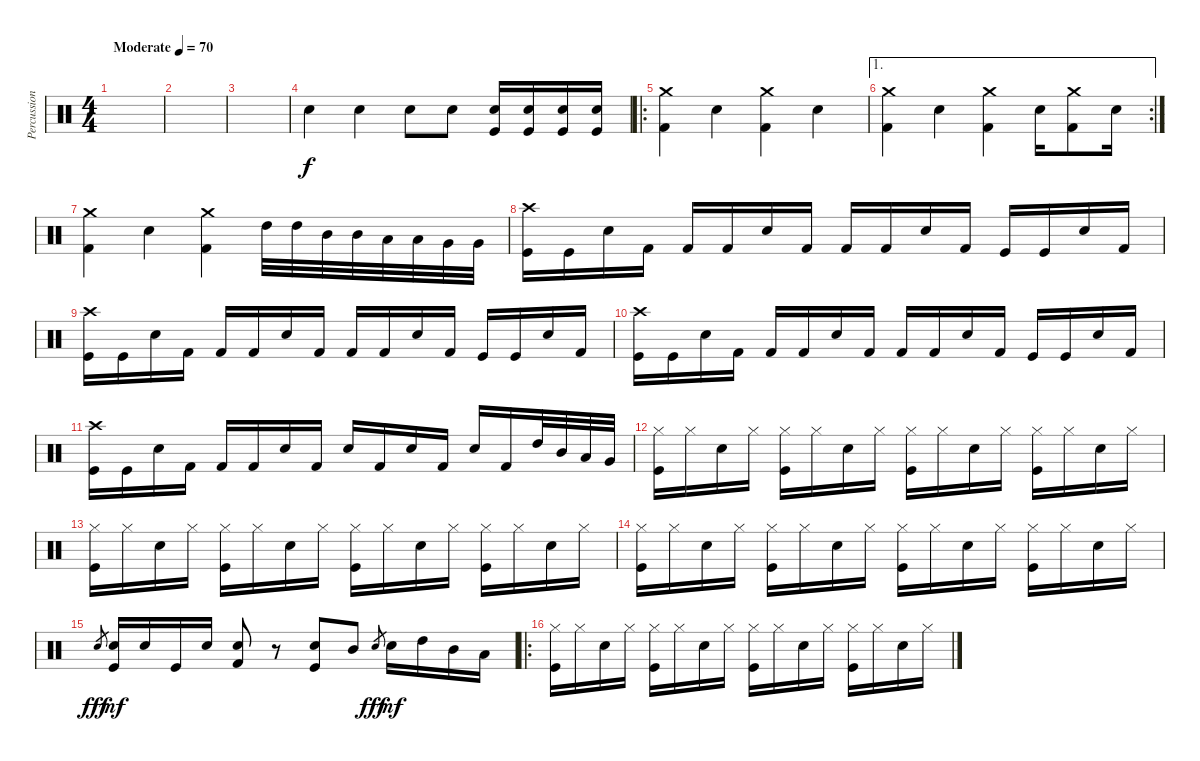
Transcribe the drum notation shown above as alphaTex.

\track ("Percussion" "Percussion") {instrument percussion}
\staff {score}
\articulation defaults
\ts (4 4)
\tempo (70 "Moderate")
\clef neutral
\ks c
|
|
|
"Snare (hit) 2".4 "Snare (hit) 2".4 "Snare (hit) 2".8 "Snare (hit) 2".8 ("Snare (hit) 2" "Kick (hit)").16 ("Snare (hit) 2" "Kick (hit)").16 ("Snare (hit) 2" "Kick (hit)").16 ("Snare (hit) 2" "Kick (hit)").16 |
\ro
("Crash medium (hit)" "Kick (hit) 2").4 "Electric Snare (hit)".4 ("Crash medium (hit)" "Kick (hit) 2").4 "Electric Snare (hit)".4 |
\ae 1
\rc 2
("Crash medium (hit)" "Kick (hit) 2").4 "Electric Snare (hit)".4 ("Crash medium (hit)" "Kick (hit) 2").4 "Electric Snare (hit)".16 ("Crash medium (hit)" "Kick (hit) 2").8 "Electric Snare (hit)".16 |
("Crash medium (hit)" "Kick (hit) 2").4 "Electric Snare (hit)".4 ("Crash medium (hit)" "Kick (hit) 2").4 "High Tom (hit)".32 "High Tom (hit)".32 "Mid Tom (hit)".32 "Mid Tom (hit)".32 "Low Tom (hit)".32 "Low Tom (hit)".32 "Very Low Tom (hit)".32 "Very Low Tom (hit)".32 |
("Crash high (hit)" "Kick (hit)").16 "Kick (hit)".16 "Snare (hit) 2".16 "Kick (hit) 2".16 "Kick (hit) 2".16 "Kick (hit) 2".16 "Snare (hit) 2".16 "Kick (hit) 2".16 "Kick (hit) 2".16 "Kick (hit) 2".16 "Snare (hit) 2".16 "Kick (hit) 2".16 "Kick (hit)".16 "Kick (hit)".16 "Snare (hit) 2".16 "Kick (hit) 2".16 |
("Crash high (hit)" "Kick (hit)").16 "Kick (hit)".16 "Snare (hit) 2".16 "Kick (hit) 2".16 "Kick (hit) 2".16 "Kick (hit) 2".16 "Snare (hit) 2".16 "Kick (hit) 2".16 "Kick (hit) 2".16 "Kick (hit) 2".16 "Snare (hit) 2".16 "Kick (hit) 2".16 "Kick (hit)".16 "Kick (hit)".16 "Snare (hit) 2".16 "Kick (hit) 2".16 |
("Crash high (hit)" "Kick (hit)").16 "Kick (hit)".16 "Snare (hit) 2".16 "Kick (hit) 2".16 "Kick (hit) 2".16 "Kick (hit) 2".16 "Snare (hit) 2".16 "Kick (hit) 2".16 "Kick (hit) 2".16 "Kick (hit) 2".16 "Snare (hit) 2".16 "Kick (hit) 2".16 "Kick (hit)".16 "Kick (hit)".16 "Snare (hit) 2".16 "Kick (hit) 2".16 |
("Crash high (hit)" "Kick (hit)").16 "Kick (hit)".16 "Snare (hit) 2".16 "Kick (hit) 2".16 "Kick (hit) 2".16 "Kick (hit) 2".16 "Snare (hit) 2".16 "Kick (hit) 2".16 "Electric Snare (hit)".16 "Kick (hit) 2".16 "Electric Snare (hit)".16 "Kick (hit) 2".16 "Electric Snare (hit)".16 "Kick (hit) 2".16 "High Tom (hit)".32 "Mid Tom (hit)".32 "Low Tom (hit)".32 "Very Low Tom (hit)".32 |
("Kick (hit)" "Hi-Hat (closed)").16 "Hi-Hat (closed)".16 "Electric Snare (hit)".16 "Hi-Hat (closed)".16 ("Kick (hit)" "Hi-Hat (closed)").16 "Hi-Hat (closed)".16 "Electric Snare (hit)".16 "Hi-Hat (closed)".16 ("Kick (hit)" "Hi-Hat (closed)").16 "Hi-Hat (closed)".16 "Electric Snare (hit)".16 "Hi-Hat (closed)".16 ("Kick (hit)" "Hi-Hat (closed)").16 "Hi-Hat (closed)".16 "Electric Snare (hit)".16 "Hi-Hat (closed)".16 |
("Kick (hit)" "Hi-Hat (closed)").16 "Hi-Hat (closed)".16 "Electric Snare (hit)".16 "Hi-Hat (closed)".16 ("Kick (hit)" "Hi-Hat (closed)").16 "Hi-Hat (closed)".16 "Electric Snare (hit)".16 "Hi-Hat (closed)".16 ("Kick (hit)" "Hi-Hat (closed)").16 "Hi-Hat (closed)".16 "Electric Snare (hit)".16 "Hi-Hat (closed)".16 ("Kick (hit)" "Hi-Hat (closed)").16 "Hi-Hat (closed)".16 "Electric Snare (hit)".16 "Hi-Hat (closed)".16 |
("Kick (hit)" "Hi-Hat (closed)").16 "Hi-Hat (closed)".16 "Electric Snare (hit)".16 "Hi-Hat (closed)".16 ("Kick (hit)" "Hi-Hat (closed)").16 "Hi-Hat (closed)".16 "Electric Snare (hit)".16 "Hi-Hat (closed)".16 ("Kick (hit)" "Hi-Hat (closed)").16 "Hi-Hat (closed)".16 "Electric Snare (hit)".16 "Hi-Hat (closed)".16 ("Kick (hit)" "Hi-Hat (closed)").16 "Hi-Hat (closed)".16 "Electric Snare (hit)".16 "Hi-Hat (closed)".16 |
"Electric Snare (hit)".8{gr dy fff} ("Electric Snare (hit)" "Kick (hit)").16{dy mf} "Electric Snare (hit)".16 "Kick (hit)".16 "Electric Snare (hit)".16 ("Electric Snare (hit)" "Kick (hit) 2").8 r.8 ("Electric Snare (hit)" "Kick (hit)").8 "Mid Tom (hit)".8 "Electric Snare (hit)".8{gr dy fff} "Electric Snare (hit)".16{dy mf} "High Tom (hit)".16 "Mid Tom (hit)".16 "Low Tom (hit)".16 |
\ro
("Kick (hit)" "Hi-Hat (closed)").16 "Hi-Hat (closed)".16 "Electric Snare (hit)".16 "Hi-Hat (closed)".16 ("Kick (hit)" "Hi-Hat (closed)").16 "Hi-Hat (closed)".16 "Electric Snare (hit)".16 "Hi-Hat (closed)".16 ("Kick (hit)" "Hi-Hat (closed)").16 "Hi-Hat (closed)".16 "Electric Snare (hit)".16 "Hi-Hat (closed)".16 ("Kick (hit)" "Hi-Hat (closed)").16 "Hi-Hat (closed)".16 "Electric Snare (hit)".16 "Hi-Hat (closed)".16
